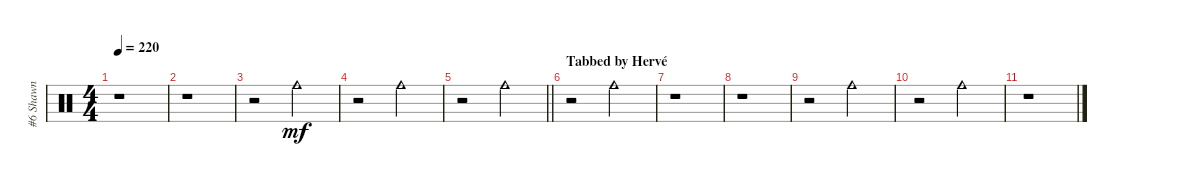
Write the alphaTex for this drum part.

\track ("#6 Shawn" "#6 Shawn") {instrument percussion}
\staff {score}
\articulation defaults
\ts (4 4)
\tempo 220
\clef neutral
\ks c
r.1{dy f} |
r.1 |
r.2 "Cowbell medium (hit)".2{dy mf} |
r.2 "Cowbell medium (hit)".2 |
\barLineRight lightlight
r.2 "Cowbell medium (hit)".2 |
\section ("" "Tabbed by Hervé")
r.2 "Cowbell medium (hit)".2 |
r.1 |
r.1 |
r.2 "Cowbell medium (hit)".2 |
r.2 "Cowbell medium (hit)".2 |
r.1
